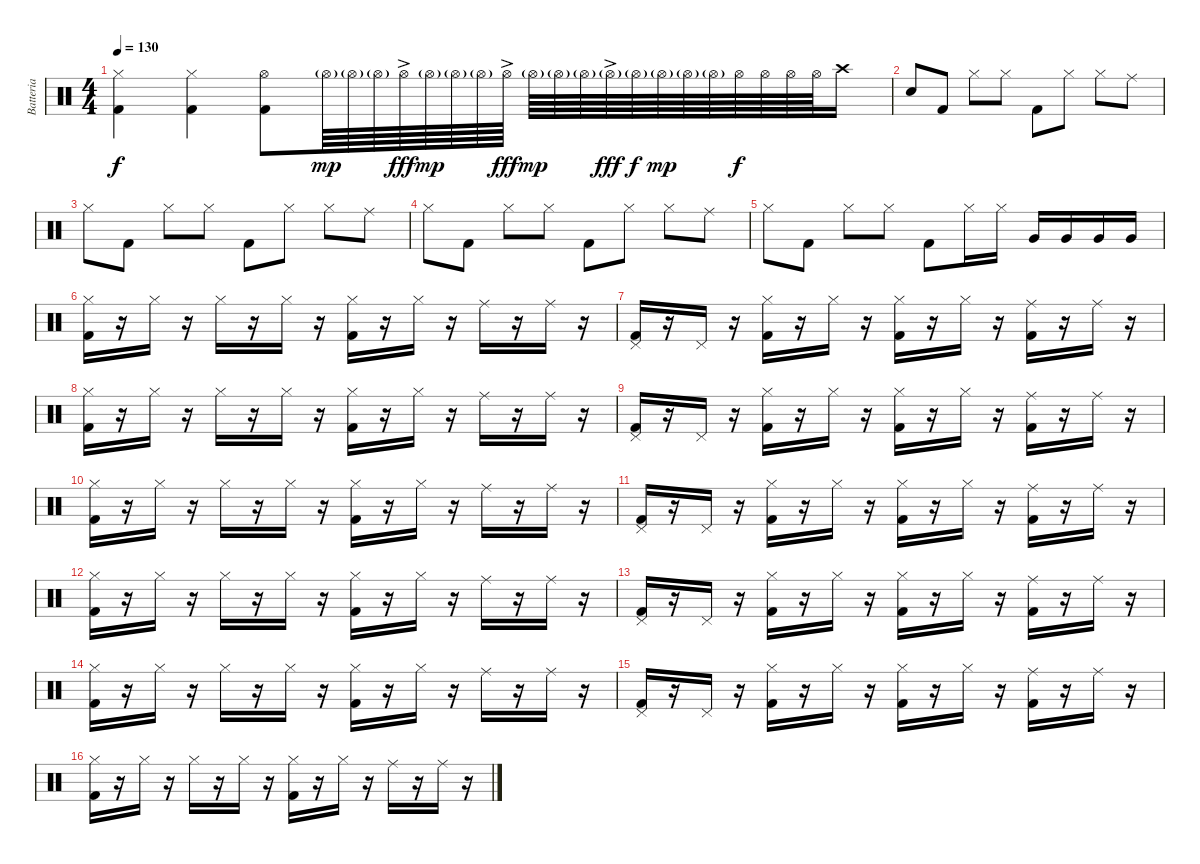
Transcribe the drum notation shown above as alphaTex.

\track ("Batteria" "Batteria") {instrument percussion}
\staff {score}
\articulation defaults
\ts (4 4)
\tempo 130
\clef neutral
\ks c
("Hi-Hat (closed)" "Kick (hit) 2").4{dy f} ("Hi-Hat (closed)" "Kick (hit) 2").4 ("Hi-Hat (open)" "Kick (hit) 2").8 "Hi-Hat (open)"{g}.64{dy mp} "Hi-Hat (open)"{g}.64 "Hi-Hat (open)"{g}.64 "Hi-Hat (open)"{ac}.64{dy fff} "Hi-Hat (open)"{g}.64{dy mp} "Hi-Hat (open)"{g}.64 "Hi-Hat (open)"{g}.64 "Hi-Hat (open)"{ac}.64{dy fff} "Hi-Hat (open)"{g}.64{dy mp} "Hi-Hat (open)"{g}.64 "Hi-Hat (open)"{g}.64 "Hi-Hat (open)"{g ac}.64{dy fff} "Hi-Hat (open)"{g}.64{dy f} "Hi-Hat (open)"{g}.64{dy mp} "Hi-Hat (open)"{g}.64 "Hi-Hat (open)"{g}.64 "Hi-Hat (open)".64{dy f} "Hi-Hat (open)".64 "Hi-Hat (open)".64 "Hi-Hat (open)".64 "Crash high (hit)".16 |
"Snare (hit)".8 "Kick (hit) 2".8 "Hi-Hat (closed)".8 "Hi-Hat (closed)".8 "Kick (hit) 2".8 "Hi-Hat (closed)".8 "Hi-Hat (closed)".8 "Ride (middle)".8 |
"Hi-Hat (closed)".8 "Kick (hit) 2".8 "Hi-Hat (closed)".8 "Hi-Hat (closed)".8 "Kick (hit) 2".8 "Hi-Hat (closed)".8 "Hi-Hat (closed)".8 "Ride (middle)".8 |
"Hi-Hat (closed)".8 "Kick (hit) 2".8 "Hi-Hat (closed)".8 "Hi-Hat (closed)".8 "Kick (hit) 2".8 "Hi-Hat (closed)".8 "Hi-Hat (closed)".8 "Ride (middle)".8 |
"Hi-Hat (closed)".8 "Kick (hit) 2".8 "Hi-Hat (closed)".8 "Hi-Hat (closed)".8 "Kick (hit) 2".8 "Hi-Hat (closed)".16 "Hi-Hat (closed)".16 "Very Low Tom (hit)".16 "Very Low Tom (hit)".16 "Very Low Tom (hit)".16 "Very Low Tom (hit)".16 |
("Hi-Hat (closed)" "Kick (hit) 2").16 r.16 "Hi-Hat (closed)".16 r.16 "Hi-Hat (closed)".16 r.16 "Hi-Hat (closed)".16 r.16 ("Hi-Hat (closed)" "Kick (hit) 2").16 r.16 "Hi-Hat (closed)".16 r.16 "Ride (middle)".16 r.16 "Ride (middle)".16 r.16 |
("Pedal Hi-Hat (hit)" "Kick (hit) 2").16 r.16 "Pedal Hi-Hat (hit)".16 r.16 ("Hi-Hat (closed)" "Kick (hit) 2").16 r.16 "Hi-Hat (closed)".16 r.16 ("Hi-Hat (closed)" "Kick (hit) 2").16 r.16 "Hi-Hat (closed)".16 r.16 ("Ride (middle)" "Kick (hit) 2").16 r.16 "Ride (middle)".16 r.16 |
("Hi-Hat (closed)" "Kick (hit) 2").16 r.16 "Hi-Hat (closed)".16 r.16 "Hi-Hat (closed)".16 r.16 "Hi-Hat (closed)".16 r.16 ("Hi-Hat (closed)" "Kick (hit) 2").16 r.16 "Hi-Hat (closed)".16 r.16 "Ride (middle)".16 r.16 "Ride (middle)".16 r.16 |
("Pedal Hi-Hat (hit)" "Kick (hit) 2").16 r.16 "Pedal Hi-Hat (hit)".16 r.16 ("Hi-Hat (closed)" "Kick (hit) 2").16 r.16 "Hi-Hat (closed)".16 r.16 ("Hi-Hat (closed)" "Kick (hit) 2").16 r.16 "Hi-Hat (closed)".16 r.16 ("Ride (middle)" "Kick (hit) 2").16 r.16 "Ride (middle)".16 r.16 |
("Hi-Hat (closed)" "Kick (hit) 2").16 r.16 "Hi-Hat (closed)".16 r.16 "Hi-Hat (closed)".16 r.16 "Hi-Hat (closed)".16 r.16 ("Hi-Hat (closed)" "Kick (hit) 2").16 r.16 "Hi-Hat (closed)".16 r.16 "Ride (middle)".16 r.16 "Ride (middle)".16 r.16 |
("Pedal Hi-Hat (hit)" "Kick (hit) 2").16 r.16 "Pedal Hi-Hat (hit)".16 r.16 ("Hi-Hat (closed)" "Kick (hit) 2").16 r.16 "Hi-Hat (closed)".16 r.16 ("Hi-Hat (closed)" "Kick (hit) 2").16 r.16 "Hi-Hat (closed)".16 r.16 ("Ride (middle)" "Kick (hit) 2").16 r.16 "Ride (middle)".16 r.16 |
("Hi-Hat (closed)" "Kick (hit) 2").16 r.16 "Hi-Hat (closed)".16 r.16 "Hi-Hat (closed)".16 r.16 "Hi-Hat (closed)".16 r.16 ("Hi-Hat (closed)" "Kick (hit) 2").16 r.16 "Hi-Hat (closed)".16 r.16 "Ride (middle)".16 r.16 "Ride (middle)".16 r.16 |
("Pedal Hi-Hat (hit)" "Kick (hit) 2").16 r.16 "Pedal Hi-Hat (hit)".16 r.16 ("Hi-Hat (closed)" "Kick (hit) 2").16 r.16 "Hi-Hat (closed)".16 r.16 ("Hi-Hat (closed)" "Kick (hit) 2").16 r.16 "Hi-Hat (closed)".16 r.16 ("Ride (middle)" "Kick (hit) 2").16 r.16 "Ride (middle)".16 r.16 |
("Hi-Hat (closed)" "Kick (hit) 2").16 r.16 "Hi-Hat (closed)".16 r.16 "Hi-Hat (closed)".16 r.16 "Hi-Hat (closed)".16 r.16 ("Hi-Hat (closed)" "Kick (hit) 2").16 r.16 "Hi-Hat (closed)".16 r.16 "Ride (middle)".16 r.16 "Ride (middle)".16 r.16 |
("Pedal Hi-Hat (hit)" "Kick (hit) 2").16 r.16 "Pedal Hi-Hat (hit)".16 r.16 ("Hi-Hat (closed)" "Kick (hit) 2").16 r.16 "Hi-Hat (closed)".16 r.16 ("Hi-Hat (closed)" "Kick (hit) 2").16 r.16 "Hi-Hat (closed)".16 r.16 ("Ride (middle)" "Kick (hit) 2").16 r.16 "Ride (middle)".16 r.16 |
("Hi-Hat (closed)" "Kick (hit) 2").16 r.16 "Hi-Hat (closed)".16 r.16 "Hi-Hat (closed)".16 r.16 "Hi-Hat (closed)".16 r.16 ("Hi-Hat (closed)" "Kick (hit) 2").16 r.16 "Hi-Hat (closed)".16 r.16 "Ride (middle)".16 r.16 "Ride (middle)".16 r.16
